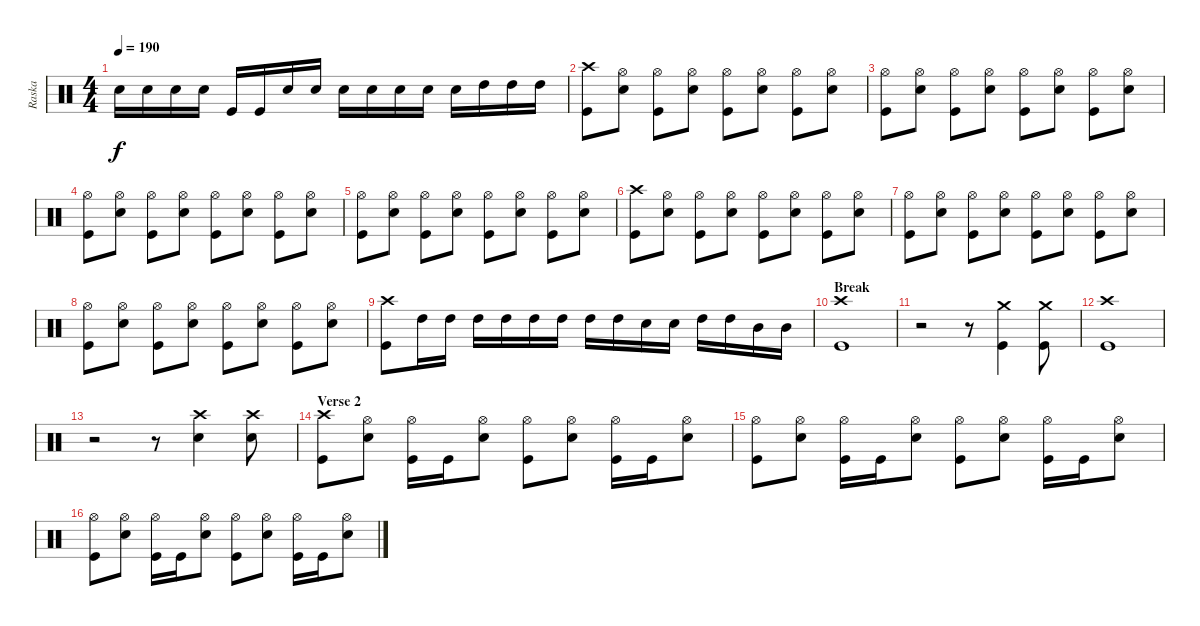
\track ("Raska" "Raska") {instrument percussion}
\staff {score}
\articulation defaults
\ts (4 4)
\tempo 190
\clef neutral
\ks c "Electric Snare (hit)".16{dy f} "Electric Snare (hit)".16 "Electric Snare (hit)".16 "Electric Snare (hit)".16 "Kick (hit)".16 "Kick (hit)".16 "Electric Snare (hit)".16 "Electric Snare (hit)".16 "Electric Snare (hit)".16 "Electric Snare (hit)".16 "Electric Snare (hit)".16 "Electric Snare (hit)".16 "Electric Snare (hit)".16 "High Tom (hit)".16 "High Tom (hit)".16 "High Tom (hit)".16
|
("Crash high (hit)" "Kick (hit)").8 ("Hi-Hat (open)" "Electric Snare (hit)").8 ("Hi-Hat (open)" "Kick (hit)").8 ("Hi-Hat (open)" "Electric Snare (hit)").8 ("Hi-Hat (open)" "Kick (hit)").8 ("Hi-Hat (open)" "Electric Snare (hit)").8 ("Hi-Hat (open)" "Kick (hit)").8 ("Hi-Hat (open)" "Electric Snare (hit)").8 |
("Hi-Hat (open)" "Kick (hit)").8 ("Hi-Hat (open)" "Electric Snare (hit)").8 ("Hi-Hat (open)" "Kick (hit)").8 ("Hi-Hat (open)" "Electric Snare (hit)").8 ("Hi-Hat (open)" "Kick (hit)").8 ("Hi-Hat (open)" "Electric Snare (hit)").8 ("Hi-Hat (open)" "Kick (hit)").8 ("Hi-Hat (open)" "Electric Snare (hit)").8 |
("Hi-Hat (open)" "Kick (hit)").8 ("Hi-Hat (open)" "Electric Snare (hit)").8 ("Hi-Hat (open)" "Kick (hit)").8 ("Hi-Hat (open)" "Electric Snare (hit)").8 ("Hi-Hat (open)" "Kick (hit)").8 ("Hi-Hat (open)" "Electric Snare (hit)").8 ("Hi-Hat (open)" "Kick (hit)").8 ("Hi-Hat (open)" "Electric Snare (hit)").8 |
("Hi-Hat (open)" "Kick (hit)").8 ("Hi-Hat (open)" "Electric Snare (hit)").8 ("Hi-Hat (open)" "Kick (hit)").8 ("Hi-Hat (open)" "Electric Snare (hit)").8 ("Hi-Hat (open)" "Kick (hit)").8 ("Hi-Hat (open)" "Electric Snare (hit)").8 ("Hi-Hat (open)" "Kick (hit)").8 ("Hi-Hat (open)" "Electric Snare (hit)").8 |
("Crash high (hit)" "Kick (hit)").8 ("Hi-Hat (open)" "Electric Snare (hit)").8 ("Hi-Hat (open)" "Kick (hit)").8 ("Hi-Hat (open)" "Electric Snare (hit)").8 ("Hi-Hat (open)" "Kick (hit)").8 ("Hi-Hat (open)" "Electric Snare (hit)").8 ("Hi-Hat (open)" "Kick (hit)").8 ("Hi-Hat (open)" "Electric Snare (hit)").8 |
("Hi-Hat (open)" "Kick (hit)").8 ("Hi-Hat (open)" "Electric Snare (hit)").8 ("Hi-Hat (open)" "Kick (hit)").8 ("Hi-Hat (open)" "Electric Snare (hit)").8 ("Hi-Hat (open)" "Kick (hit)").8 ("Hi-Hat (open)" "Electric Snare (hit)").8 ("Hi-Hat (open)" "Kick (hit)").8 ("Hi-Hat (open)" "Electric Snare (hit)").8 |
("Hi-Hat (open)" "Kick (hit)").8 ("Hi-Hat (open)" "Electric Snare (hit)").8 ("Hi-Hat (open)" "Kick (hit)").8 ("Hi-Hat (open)" "Electric Snare (hit)").8 ("Hi-Hat (open)" "Kick (hit)").8 ("Hi-Hat (open)" "Electric Snare (hit)").8 ("Hi-Hat (open)" "Kick (hit)").8 ("Hi-Hat (open)" "Electric Snare (hit)").8 |
("Crash high (hit)" "Kick (hit)").8 "High Tom (hit)".16 "High Tom (hit)".16 "High Tom (hit)".16 "High Tom (hit)".16 "High Tom (hit)".16 "High Tom (hit)".16 "High Tom (hit)".16 "High Tom (hit)".16 "Electric Snare (hit)".16 "Electric Snare (hit)".16 "High Tom (hit)".16 "High Tom (hit)".16 "Mid Tom (hit)".16 "Mid Tom (hit)".16 |
\section ("" "Break")
("Crash high (hit)" "Kick (hit)").1 |
r.2 r.8 ("Crash medium (hit)" "Kick (hit)").4 ("Crash medium (hit)" "Kick (hit)").8 |
("Crash high (hit)" "Kick (hit)").1 |
r.2 r.8 ("Crash high (hit)" "Electric Snare (hit)").4 ("Crash high (hit)" "Electric Snare (hit)").8 |
\section ("" "Verse 2")
("Crash high (hit)" "Kick (hit)").8 ("Hi-Hat (open)" "Electric Snare (hit)").8 ("Hi-Hat (open)" "Kick (hit)").16 "Kick (hit)".16 ("Hi-Hat (open)" "Electric Snare (hit)").8 ("Hi-Hat (open)" "Kick (hit)").8 ("Hi-Hat (open)" "Electric Snare (hit)").8 ("Hi-Hat (open)" "Kick (hit)").16 "Kick (hit)".16 ("Hi-Hat (open)" "Electric Snare (hit)").8 |
("Hi-Hat (open)" "Kick (hit)").8 ("Hi-Hat (open)" "Electric Snare (hit)").8 ("Hi-Hat (open)" "Kick (hit)").16 "Kick (hit)".16 ("Hi-Hat (open)" "Electric Snare (hit)").8 ("Hi-Hat (open)" "Kick (hit)").8 ("Hi-Hat (open)" "Electric Snare (hit)").8 ("Hi-Hat (open)" "Kick (hit)").16 "Kick (hit)".16 ("Hi-Hat (open)" "Electric Snare (hit)").8 |
("Hi-Hat (open)" "Kick (hit)").8 ("Hi-Hat (open)" "Electric Snare (hit)").8 ("Hi-Hat (open)" "Kick (hit)").16 "Kick (hit)".16 ("Hi-Hat (open)" "Electric Snare (hit)").8 ("Hi-Hat (open)" "Kick (hit)").8 ("Hi-Hat (open)" "Electric Snare (hit)").8 ("Hi-Hat (open)" "Kick (hit)").16 "Kick (hit)".16 ("Hi-Hat (open)" "Electric Snare (hit)").8
